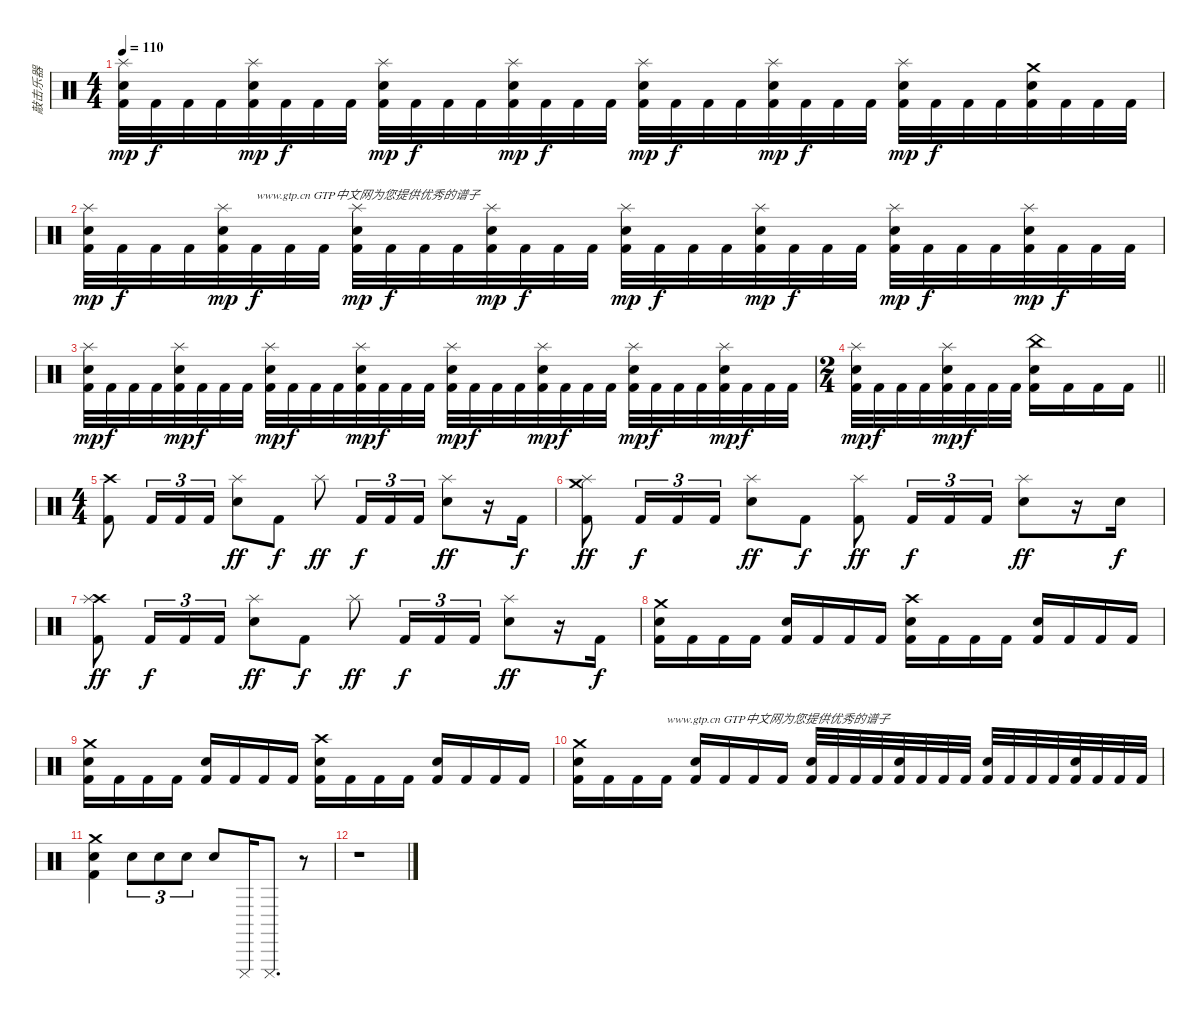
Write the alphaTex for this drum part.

\track ("敲击乐器" "敲击乐器") {instrument percussion}
\staff {score}
\articulation defaults
\ts (4 4)
\tempo 110
\clef neutral
\ks c
("Splash (hit)" "Snare (hit) 2" "Kick (hit) 2").32{dy mp} "Kick (hit) 2".32{dy f} "Kick (hit) 2".32 "Kick (hit) 2".32 ("Splash (hit)" "Snare (hit) 2" "Kick (hit) 2").32{dy mp} "Kick (hit) 2".32{dy f} "Kick (hit) 2".32 "Kick (hit) 2".32 ("Splash (hit)" "Snare (hit) 2" "Kick (hit) 2").32{dy mp} "Kick (hit) 2".32{dy f} "Kick (hit) 2".32 "Kick (hit) 2".32 ("Splash (hit)" "Snare (hit) 2" "Kick (hit) 2").32{dy mp} "Kick (hit) 2".32{dy f} "Kick (hit) 2".32 "Kick (hit) 2".32 ("Splash (hit)" "Snare (hit) 2" "Kick (hit) 2").32{dy mp} "Kick (hit) 2".32{dy f} "Kick (hit) 2".32 "Kick (hit) 2".32 ("Splash (hit)" "Snare (hit) 2" "Kick (hit) 2").32{dy mp} "Kick (hit) 2".32{dy f} "Kick (hit) 2".32 "Kick (hit) 2".32 ("Splash (hit)" "Snare (hit) 2" "Kick (hit) 2").32{dy mp} "Kick (hit) 2".32{dy f} "Kick (hit) 2".32 "Kick (hit) 2".32 ("Crash medium (hit)" "Snare (hit) 2" "Kick (hit) 2").32 "Kick (hit) 2".32 "Kick (hit) 2".32 "Kick (hit) 2".32 |
("Splash (hit)" "Snare (hit) 2" "Kick (hit) 2").32{dy mp} "Kick (hit) 2".32{dy f} "Kick (hit) 2".32 "Kick (hit) 2".32 ("Splash (hit)" "Snare (hit) 2" "Kick (hit) 2").32{dy mp} "Kick (hit) 2".32{txt "www.gtp.cn GTP中文网为您提供优秀的谱子" dy f} "Kick (hit) 2".32 "Kick (hit) 2".32 ("Splash (hit)" "Snare (hit) 2" "Kick (hit) 2").32{dy mp} "Kick (hit) 2".32{dy f} "Kick (hit) 2".32 "Kick (hit) 2".32 ("Splash (hit)" "Snare (hit) 2" "Kick (hit) 2").32{dy mp} "Kick (hit) 2".32{dy f} "Kick (hit) 2".32 "Kick (hit) 2".32 ("Splash (hit)" "Snare (hit) 2" "Kick (hit) 2").32{dy mp} "Kick (hit) 2".32{dy f} "Kick (hit) 2".32 "Kick (hit) 2".32 ("Splash (hit)" "Snare (hit) 2" "Kick (hit) 2").32{dy mp} "Kick (hit) 2".32{dy f} "Kick (hit) 2".32 "Kick (hit) 2".32 ("Splash (hit)" "Snare (hit) 2" "Kick (hit) 2").32{dy mp} "Kick (hit) 2".32{dy f} "Kick (hit) 2".32 "Kick (hit) 2".32 ("Splash (hit)" "Snare (hit) 2" "Kick (hit) 2").32{dy mp} "Kick (hit) 2".32{dy f} "Kick (hit) 2".32 "Kick (hit) 2".32 |
("Splash (hit)" "Snare (hit) 2" "Kick (hit) 2").32{dy mp} "Kick (hit) 2".32{dy f} "Kick (hit) 2".32 "Kick (hit) 2".32 ("Splash (hit)" "Snare (hit) 2" "Kick (hit) 2").32{dy mp} "Kick (hit) 2".32{dy f} "Kick (hit) 2".32 "Kick (hit) 2".32 ("Splash (hit)" "Snare (hit) 2" "Kick (hit) 2").32{dy mp} "Kick (hit) 2".32{dy f} "Kick (hit) 2".32 "Kick (hit) 2".32 ("Splash (hit)" "Snare (hit) 2" "Kick (hit) 2").32{dy mp} "Kick (hit) 2".32{dy f} "Kick (hit) 2".32 "Kick (hit) 2".32 ("Splash (hit)" "Snare (hit) 2" "Kick (hit) 2").32{dy mp} "Kick (hit) 2".32{dy f} "Kick (hit) 2".32 "Kick (hit) 2".32 ("Splash (hit)" "Snare (hit) 2" "Kick (hit) 2").32{dy mp} "Kick (hit) 2".32{dy f} "Kick (hit) 2".32 "Kick (hit) 2".32 ("Splash (hit)" "Snare (hit) 2" "Kick (hit) 2").32{dy mp} "Kick (hit) 2".32{dy f} "Kick (hit) 2".32 "Kick (hit) 2".32 ("Splash (hit)" "Snare (hit) 2" "Kick (hit) 2").32{dy mp} "Kick (hit) 2".32{dy f} "Kick (hit) 2".32 "Kick (hit) 2".32 |
\ts (2 4)
\barLineRight lightlight
("Splash (hit)" "Snare (hit) 2" "Kick (hit) 2").32{dy mp} "Kick (hit) 2".32{dy f} "Kick (hit) 2".32 "Kick (hit) 2".32 ("Splash (hit)" "Snare (hit) 2" "Kick (hit) 2").32{dy mp} "Kick (hit) 2".32{dy f} "Kick (hit) 2".32 "Kick (hit) 2".32 ("China (hit)" "Snare (hit) 2" "Kick (hit) 2").16 "Kick (hit) 2".16 "Kick (hit) 2".16 "Kick (hit) 2".16 |
\ts (4 4)
("Crash high (hit)" "Kick (hit) 2").8 "Kick (hit) 2".16{tu (3 2)} "Kick (hit) 2".16{tu (3 2)} "Kick (hit) 2".16{tu (3 2)} ("Splash (hit)" "Snare (hit) 2").8{dy ff} "Kick (hit) 2".8{dy f} "Splash (hit)".8{dy ff} "Kick (hit) 2".16{tu (3 2) dy f} "Kick (hit) 2".16{tu (3 2)} "Kick (hit) 2".16{tu (3 2)} ("Splash (hit)" "Snare (hit) 2").8{dy ff} r.16 "Kick (hit) 2".16{dy f} |
("Crash medium (hit)" "Splash (hit)" "Kick (hit) 2").8{dy ff} "Kick (hit) 2".16{tu (3 2) dy f} "Kick (hit) 2".16{tu (3 2)} "Kick (hit) 2".16{tu (3 2)} ("Splash (hit)" "Snare (hit) 2").8{dy ff} "Kick (hit) 2".8{dy f} ("Splash (hit)" "Kick (hit) 2").8{dy ff} "Kick (hit) 2".16{tu (3 2) dy f} "Kick (hit) 2".16{tu (3 2)} "Kick (hit) 2".16{tu (3 2)} ("Splash (hit)" "Snare (hit) 2").8{dy ff} r.16 "Snare (hit) 2".16{dy f} |
("Crash high (hit)" "Splash (hit)" "Kick (hit) 2").8{dy ff} "Kick (hit) 2".16{tu (3 2) dy f} "Kick (hit) 2".16{tu (3 2)} "Kick (hit) 2".16{tu (3 2)} ("Splash (hit)" "Snare (hit) 2").8{dy ff} "Kick (hit) 2".8{dy f} "Splash (hit)".8{dy ff} "Kick (hit) 2".16{tu (3 2) dy f} "Kick (hit) 2".16{tu (3 2)} "Kick (hit) 2".16{tu (3 2)} ("Splash (hit)" "Snare (hit) 2").8{dy ff} r.16 "Kick (hit) 2".16{dy f} |
("Crash medium (hit)" "Snare (hit) 2" "Kick (hit) 2").16 "Kick (hit) 2".16 "Kick (hit) 2".16 "Kick (hit) 2".16 ("Snare (hit) 2" "Kick (hit) 2").16 "Kick (hit) 2".16 "Kick (hit) 2".16 "Kick (hit) 2".16 ("Crash high (hit)" "Snare (hit) 2" "Kick (hit) 2").16 "Kick (hit) 2".16 "Kick (hit) 2".16 "Kick (hit) 2".16 ("Snare (hit) 2" "Kick (hit) 2").16 "Kick (hit) 2".16 "Kick (hit) 2".16 "Kick (hit) 2".16 |
("Crash medium (hit)" "Snare (hit) 2" "Kick (hit) 2").16 "Kick (hit) 2".16 "Kick (hit) 2".16 "Kick (hit) 2".16 ("Snare (hit) 2" "Kick (hit) 2").16 "Kick (hit) 2".16 "Kick (hit) 2".16 "Kick (hit) 2".16 ("Crash high (hit)" "Snare (hit) 2" "Kick (hit) 2").16 "Kick (hit) 2".16 "Kick (hit) 2".16 "Kick (hit) 2".16 ("Snare (hit) 2" "Kick (hit) 2").16 "Kick (hit) 2".16 "Kick (hit) 2".16 "Kick (hit) 2".16 |
("Crash medium (hit)" "Snare (hit) 2" "Kick (hit) 2").16 "Kick (hit) 2".16 "Kick (hit) 2".16 "Kick (hit) 2".16{txt "www.gtp.cn GTP中文网为您提供优秀的谱子"} ("Snare (hit) 2" "Kick (hit) 2").16 "Kick (hit) 2".16 "Kick (hit) 2".16 "Kick (hit) 2".16 ("Snare (hit) 2" "Kick (hit) 2").32 "Kick (hit) 2".32 "Kick (hit) 2".32 "Kick (hit) 2".32 ("Snare (hit) 2" "Kick (hit) 2").32 "Kick (hit) 2".32 "Kick (hit) 2".32 "Kick (hit) 2".32 ("Snare (hit) 2" "Kick (hit) 2").32 "Kick (hit) 2".32 "Kick (hit) 2".32 "Kick (hit) 2".32 ("Snare (hit) 2" "Kick (hit) 2").32 "Kick (hit) 2".32 "Kick (hit) 2".32 "Kick (hit) 2".32 |
("Crash medium (hit)" "Snare (hit) 2" "Kick (hit) 2").4 "Snare (hit) 2".8{tu (3 2)} "Snare (hit) 2".8{tu (3 2)} "Snare (hit) 2".8{tu (3 2)} "Snare (hit) 2".8 "Cuica (mute)".16 "Cuica (mute)".8{d} r.8 |
r.1
